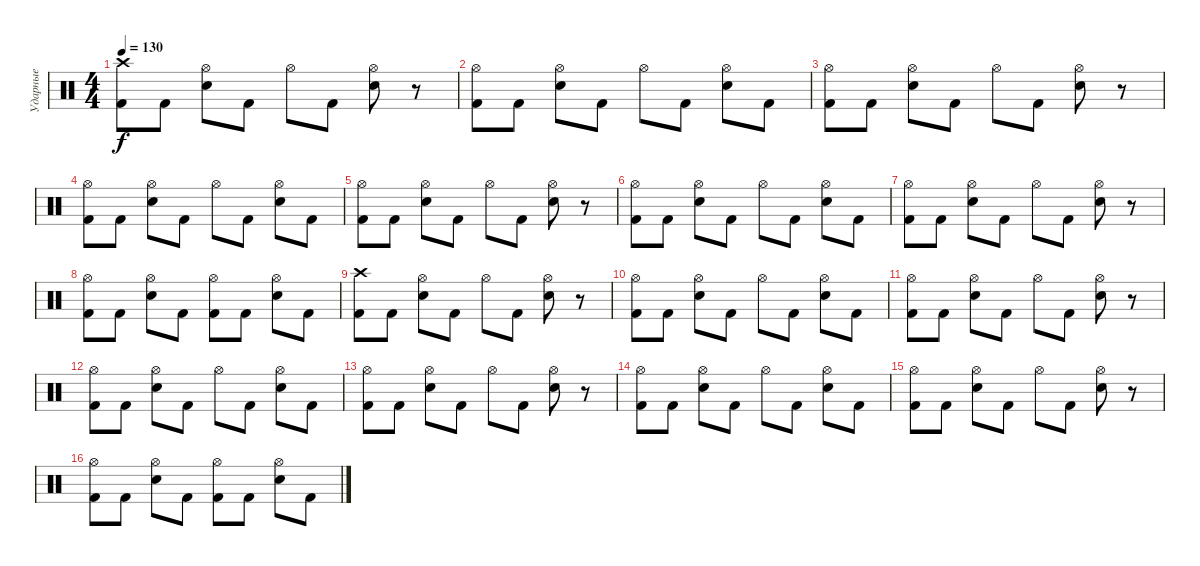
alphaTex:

\track ("Ударные" "Ударные") {instrument percussion}
\staff {score}
\articulation defaults
\ts (4 4)
\tempo 130
\clef neutral
\ks c
("Crash high (hit)" "Kick (hit) 2").8{dy f} "Kick (hit) 2".8 ("Hi-Hat (open)" "Snare (hit) 2").8 "Kick (hit) 2".8 "Hi-Hat (open)".8 "Kick (hit) 2".8 ("Hi-Hat (open)" "Snare (hit) 2").8 r.8 |
("Hi-Hat (open)" "Kick (hit) 2").8 "Kick (hit) 2".8 ("Hi-Hat (open)" "Snare (hit) 2").8 "Kick (hit) 2".8 "Hi-Hat (open)".8 "Kick (hit) 2".8 ("Hi-Hat (open)" "Snare (hit) 2").8 "Kick (hit) 2".8 |
("Hi-Hat (open)" "Kick (hit) 2").8 "Kick (hit) 2".8 ("Hi-Hat (open)" "Snare (hit) 2").8 "Kick (hit) 2".8 "Hi-Hat (open)".8 "Kick (hit) 2".8 ("Hi-Hat (open)" "Snare (hit) 2").8 r.8 |
("Hi-Hat (open)" "Kick (hit) 2").8 "Kick (hit) 2".8 ("Hi-Hat (open)" "Snare (hit) 2").8 "Kick (hit) 2".8 "Hi-Hat (open)".8 "Kick (hit) 2".8 ("Hi-Hat (open)" "Snare (hit) 2").8 "Kick (hit) 2".8 |
("Hi-Hat (open)" "Kick (hit) 2").8 "Kick (hit) 2".8 ("Hi-Hat (open)" "Snare (hit) 2").8 "Kick (hit) 2".8 "Hi-Hat (open)".8 "Kick (hit) 2".8 ("Hi-Hat (open)" "Snare (hit) 2").8 r.8 |
("Hi-Hat (open)" "Kick (hit) 2").8 "Kick (hit) 2".8 ("Hi-Hat (open)" "Snare (hit) 2").8 "Kick (hit) 2".8 "Hi-Hat (open)".8 "Kick (hit) 2".8 ("Hi-Hat (open)" "Snare (hit) 2").8 "Kick (hit) 2".8 |
("Hi-Hat (open)" "Kick (hit) 2").8 "Kick (hit) 2".8 ("Hi-Hat (open)" "Snare (hit) 2").8 "Kick (hit) 2".8 "Hi-Hat (open)".8 "Kick (hit) 2".8 ("Hi-Hat (open)" "Snare (hit) 2").8 r.8 |
("Hi-Hat (open)" "Kick (hit) 2").8 "Kick (hit) 2".8 ("Hi-Hat (open)" "Snare (hit) 2").8 "Kick (hit) 2".8 ("Hi-Hat (open)" "Kick (hit) 2").8 "Kick (hit) 2".8 ("Hi-Hat (open)" "Snare (hit) 2").8 "Kick (hit) 2".8 |
("Crash high (hit)" "Kick (hit) 2").8 "Kick (hit) 2".8 ("Hi-Hat (open)" "Snare (hit) 2").8 "Kick (hit) 2".8 "Hi-Hat (open)".8 "Kick (hit) 2".8 ("Hi-Hat (open)" "Snare (hit) 2").8 r.8 |
("Hi-Hat (open)" "Kick (hit) 2").8 "Kick (hit) 2".8 ("Hi-Hat (open)" "Snare (hit) 2").8 "Kick (hit) 2".8 "Hi-Hat (open)".8 "Kick (hit) 2".8 ("Hi-Hat (open)" "Snare (hit) 2").8 "Kick (hit) 2".8 |
("Hi-Hat (open)" "Kick (hit) 2").8 "Kick (hit) 2".8 ("Hi-Hat (open)" "Snare (hit) 2").8 "Kick (hit) 2".8 "Hi-Hat (open)".8 "Kick (hit) 2".8 ("Hi-Hat (open)" "Snare (hit) 2").8 r.8 |
("Hi-Hat (open)" "Kick (hit) 2").8 "Kick (hit) 2".8 ("Hi-Hat (open)" "Snare (hit) 2").8 "Kick (hit) 2".8 "Hi-Hat (open)".8 "Kick (hit) 2".8 ("Hi-Hat (open)" "Snare (hit) 2").8 "Kick (hit) 2".8 |
("Hi-Hat (open)" "Kick (hit) 2").8 "Kick (hit) 2".8 ("Hi-Hat (open)" "Snare (hit) 2").8 "Kick (hit) 2".8 "Hi-Hat (open)".8 "Kick (hit) 2".8 ("Hi-Hat (open)" "Snare (hit) 2").8 r.8 |
("Hi-Hat (open)" "Kick (hit) 2").8 "Kick (hit) 2".8 ("Hi-Hat (open)" "Snare (hit) 2").8 "Kick (hit) 2".8 "Hi-Hat (open)".8 "Kick (hit) 2".8 ("Hi-Hat (open)" "Snare (hit) 2").8 "Kick (hit) 2".8 |
("Hi-Hat (open)" "Kick (hit) 2").8 "Kick (hit) 2".8 ("Hi-Hat (open)" "Snare (hit) 2").8 "Kick (hit) 2".8 "Hi-Hat (open)".8 "Kick (hit) 2".8 ("Hi-Hat (open)" "Snare (hit) 2").8 r.8 |
("Hi-Hat (open)" "Kick (hit) 2").8 "Kick (hit) 2".8 ("Hi-Hat (open)" "Snare (hit) 2").8 "Kick (hit) 2".8 ("Hi-Hat (open)" "Kick (hit) 2").8 "Kick (hit) 2".8 ("Hi-Hat (open)" "Snare (hit) 2").8 "Kick (hit) 2".8
